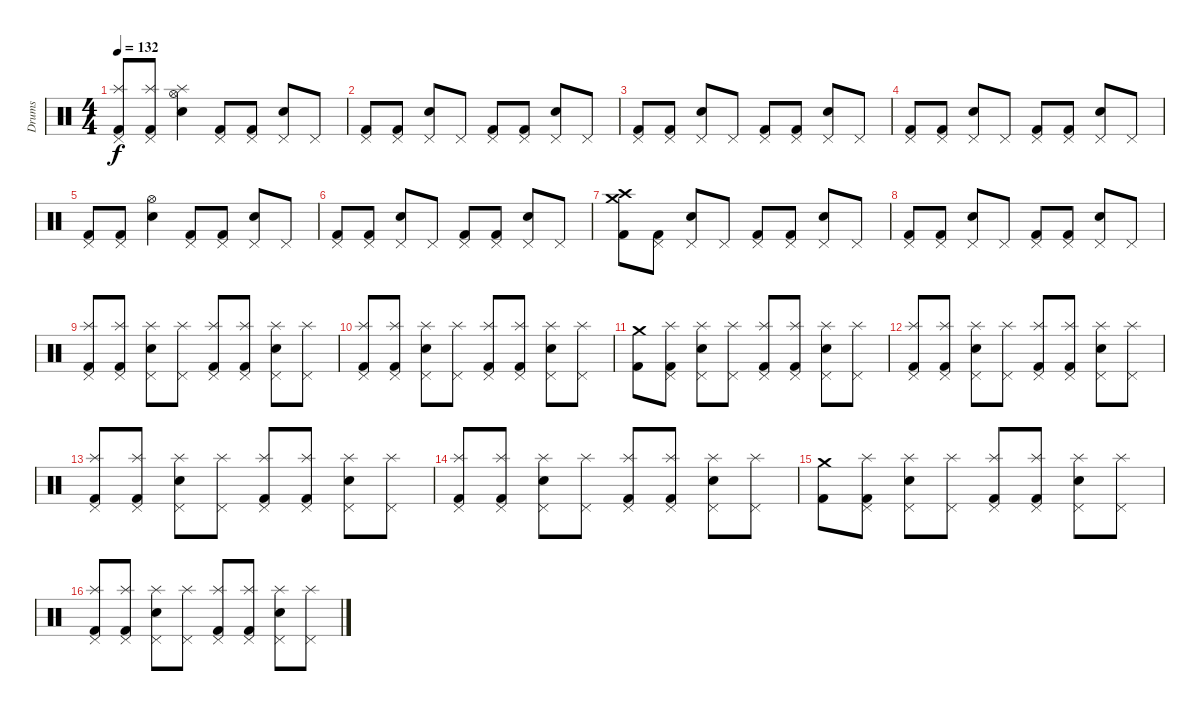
\track ("Drums" "Drums") {instrument percussion}
\staff {score}
\articulation defaults
\ts (4 4)
\tempo 132
\clef neutral
\ks c
("Pedal Hi-Hat (hit)" "Splash (hit)" "Kick (hit) 2").8{dy f} ("Splash (hit)" "Pedal Hi-Hat (hit)" "Kick (hit) 2").8 ("Splash (hit)" "Snare (hit) 2" "Hi-Hat (open)").4 ("Kick (hit) 2" "Pedal Hi-Hat (hit)").8 ("Kick (hit) 2" "Pedal Hi-Hat (hit)").8 ("Snare (hit) 2" "Pedal Hi-Hat (hit)").8 "Pedal Hi-Hat (hit)".8 |
("Kick (hit) 2" "Pedal Hi-Hat (hit)").8 ("Kick (hit) 2" "Pedal Hi-Hat (hit)").8 ("Snare (hit) 2" "Pedal Hi-Hat (hit)").8 "Pedal Hi-Hat (hit)".8 ("Kick (hit) 2" "Pedal Hi-Hat (hit)").8 ("Kick (hit) 2" "Pedal Hi-Hat (hit)").8 ("Snare (hit) 2" "Pedal Hi-Hat (hit)").8 "Pedal Hi-Hat (hit)".8 |
("Kick (hit) 2" "Pedal Hi-Hat (hit)").8 ("Kick (hit) 2" "Pedal Hi-Hat (hit)").8 ("Snare (hit) 2" "Pedal Hi-Hat (hit)").8 "Pedal Hi-Hat (hit)".8 ("Kick (hit) 2" "Pedal Hi-Hat (hit)").8 ("Kick (hit) 2" "Pedal Hi-Hat (hit)").8 ("Snare (hit) 2" "Pedal Hi-Hat (hit)").8 "Pedal Hi-Hat (hit)".8 |
("Kick (hit) 2" "Pedal Hi-Hat (hit)").8 ("Kick (hit) 2" "Pedal Hi-Hat (hit)").8 ("Snare (hit) 2" "Pedal Hi-Hat (hit)").8 "Pedal Hi-Hat (hit)".8 ("Kick (hit) 2" "Pedal Hi-Hat (hit)").8 ("Kick (hit) 2" "Pedal Hi-Hat (hit)").8 ("Snare (hit) 2" "Pedal Hi-Hat (hit)").8 "Pedal Hi-Hat (hit)".8 |
("Kick (hit) 2" "Pedal Hi-Hat (hit)").8 ("Kick (hit) 2" "Pedal Hi-Hat (hit)").8 ("Snare (hit) 2" "Hi-Hat (open)").4 ("Kick (hit) 2" "Pedal Hi-Hat (hit)").8 ("Kick (hit) 2" "Pedal Hi-Hat (hit)").8 ("Snare (hit) 2" "Pedal Hi-Hat (hit)").8 "Pedal Hi-Hat (hit)".8 |
("Kick (hit) 2" "Pedal Hi-Hat (hit)").8 ("Kick (hit) 2" "Pedal Hi-Hat (hit)").8 ("Snare (hit) 2" "Pedal Hi-Hat (hit)").8 "Pedal Hi-Hat (hit)".8 ("Kick (hit) 2" "Pedal Hi-Hat (hit)").8 ("Kick (hit) 2" "Pedal Hi-Hat (hit)").8 ("Snare (hit) 2" "Pedal Hi-Hat (hit)").8 "Pedal Hi-Hat (hit)".8 |
("Kick (hit) 2" "Crash high (hit)" "Crash medium (hit)").8 ("Kick (hit) 2" "Pedal Hi-Hat (hit)").8 ("Snare (hit) 2" "Pedal Hi-Hat (hit)").8 "Pedal Hi-Hat (hit)".8 ("Kick (hit) 2" "Pedal Hi-Hat (hit)").8 ("Kick (hit) 2" "Pedal Hi-Hat (hit)").8 ("Snare (hit) 2" "Pedal Hi-Hat (hit)").8 "Pedal Hi-Hat (hit)".8 |
("Kick (hit) 2" "Pedal Hi-Hat (hit)").8 ("Kick (hit) 2" "Pedal Hi-Hat (hit)").8 ("Snare (hit) 2" "Pedal Hi-Hat (hit)").8 "Pedal Hi-Hat (hit)".8 ("Kick (hit) 2" "Pedal Hi-Hat (hit)").8 ("Kick (hit) 2" "Pedal Hi-Hat (hit)").8 ("Snare (hit) 2" "Pedal Hi-Hat (hit)").8 "Pedal Hi-Hat (hit)".8 |
("Splash (hit)" "Kick (hit) 2" "Pedal Hi-Hat (hit)").8 ("Splash (hit)" "Kick (hit) 2" "Pedal Hi-Hat (hit)").8 ("Splash (hit)" "Snare (hit) 2" "Pedal Hi-Hat (hit)").8 ("Splash (hit)" "Pedal Hi-Hat (hit)").8 ("Splash (hit)" "Kick (hit) 2" "Pedal Hi-Hat (hit)").8 ("Splash (hit)" "Kick (hit) 2" "Pedal Hi-Hat (hit)").8 ("Splash (hit)" "Snare (hit) 2" "Pedal Hi-Hat (hit)").8 ("Splash (hit)" "Pedal Hi-Hat (hit)").8 |
("Splash (hit)" "Kick (hit) 2" "Pedal Hi-Hat (hit)").8 ("Splash (hit)" "Kick (hit) 2" "Pedal Hi-Hat (hit)").8 ("Splash (hit)" "Snare (hit) 2" "Pedal Hi-Hat (hit)").8 ("Splash (hit)" "Pedal Hi-Hat (hit)").8 ("Splash (hit)" "Kick (hit) 2" "Pedal Hi-Hat (hit)").8 ("Splash (hit)" "Pedal Hi-Hat (hit)" "Kick (hit) 2").8 ("Splash (hit)" "Snare (hit) 2" "Pedal Hi-Hat (hit)").8 ("Splash (hit)" "Pedal Hi-Hat (hit)").8 |
("Crash medium (hit)" "Kick (hit) 2").8 ("Splash (hit)" "Pedal Hi-Hat (hit)" "Kick (hit) 2").8 ("Snare (hit) 2" "Splash (hit)" "Pedal Hi-Hat (hit)").8 ("Splash (hit)" "Pedal Hi-Hat (hit)").8 ("Splash (hit)" "Pedal Hi-Hat (hit)" "Kick (hit) 2").8 ("Splash (hit)" "Pedal Hi-Hat (hit)" "Kick (hit) 2").8 ("Snare (hit) 2" "Splash (hit)" "Pedal Hi-Hat (hit)").8 ("Splash (hit)" "Pedal Hi-Hat (hit)").8 |
("Splash (hit)" "Pedal Hi-Hat (hit)" "Kick (hit) 2").8 ("Splash (hit)" "Pedal Hi-Hat (hit)" "Kick (hit) 2").8 ("Snare (hit) 2" "Splash (hit)" "Pedal Hi-Hat (hit)").8 ("Splash (hit)" "Pedal Hi-Hat (hit)").8 ("Splash (hit)" "Pedal Hi-Hat (hit)" "Kick (hit) 2").8 ("Splash (hit)" "Pedal Hi-Hat (hit)" "Kick (hit) 2").8 ("Snare (hit) 2" "Splash (hit)" "Pedal Hi-Hat (hit)").8 ("Splash (hit)" "Pedal Hi-Hat (hit)").8 |
("Splash (hit)" "Pedal Hi-Hat (hit)" "Kick (hit) 2").8 ("Splash (hit)" "Pedal Hi-Hat (hit)" "Kick (hit) 2").8 ("Snare (hit) 2" "Splash (hit)" "Pedal Hi-Hat (hit)").8 ("Splash (hit)" "Pedal Hi-Hat (hit)").8 ("Splash (hit)" "Pedal Hi-Hat (hit)" "Kick (hit) 2").8 ("Splash (hit)" "Pedal Hi-Hat (hit)" "Kick (hit) 2").8 ("Snare (hit) 2" "Splash (hit)" "Pedal Hi-Hat (hit)").8 ("Splash (hit)" "Pedal Hi-Hat (hit)").8 |
("Splash (hit)" "Pedal Hi-Hat (hit)" "Kick (hit) 2").8 ("Splash (hit)" "Pedal Hi-Hat (hit)" "Kick (hit) 2").8 ("Snare (hit) 2" "Splash (hit)" "Pedal Hi-Hat (hit)").8 ("Splash (hit)" "Pedal Hi-Hat (hit)").8 ("Splash (hit)" "Pedal Hi-Hat (hit)" "Kick (hit) 2").8 ("Splash (hit)" "Pedal Hi-Hat (hit)" "Kick (hit) 2").8 ("Snare (hit) 2" "Splash (hit)" "Pedal Hi-Hat (hit)").8 ("Splash (hit)" "Pedal Hi-Hat (hit)").8 |
("Crash medium (hit)" "Kick (hit) 2").8 ("Pedal Hi-Hat (hit)" "Splash (hit)" "Kick (hit) 2").8 ("Pedal Hi-Hat (hit)" "Splash (hit)" "Snare (hit) 2").8 ("Pedal Hi-Hat (hit)" "Splash (hit)").8 ("Pedal Hi-Hat (hit)" "Splash (hit)" "Kick (hit) 2").8 ("Pedal Hi-Hat (hit)" "Splash (hit)" "Kick (hit) 2").8 ("Pedal Hi-Hat (hit)" "Splash (hit)" "Snare (hit) 2").8 ("Pedal Hi-Hat (hit)" "Splash (hit)").8 |
("Pedal Hi-Hat (hit)" "Splash (hit)" "Kick (hit) 2").8 ("Pedal Hi-Hat (hit)" "Splash (hit)" "Kick (hit) 2").8 ("Pedal Hi-Hat (hit)" "Splash (hit)" "Snare (hit) 2").8 ("Pedal Hi-Hat (hit)" "Splash (hit)").8 ("Pedal Hi-Hat (hit)" "Splash (hit)" "Kick (hit) 2").8 ("Pedal Hi-Hat (hit)" "Splash (hit)" "Kick (hit) 2").8 ("Pedal Hi-Hat (hit)" "Splash (hit)" "Snare (hit) 2").8 ("Pedal Hi-Hat (hit)" "Splash (hit)").8
